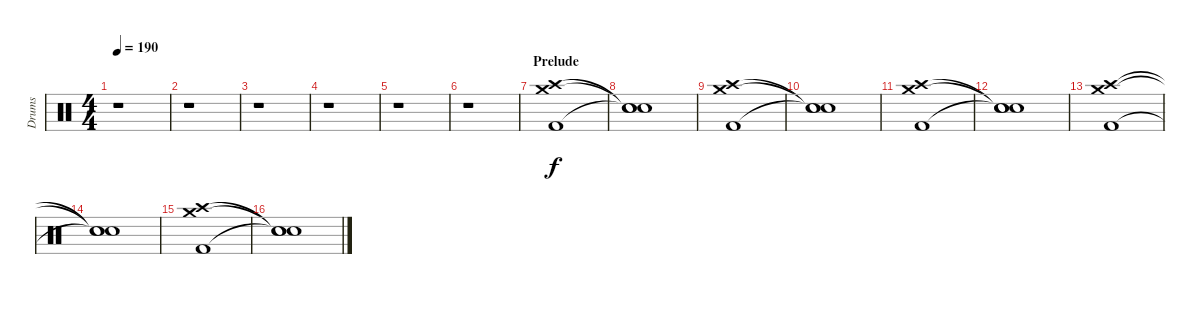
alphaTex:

\track ("Drums" "Drums") {instrument percussion}
\staff {score}
\articulation defaults
\ts (4 4)
\tempo 190
\clef neutral
\ks c
r.1{dy f} |
r.1 |
r.1 |
r.1 |
r.1 |
r.1 |
\section ("" "Prelude")
("Crash medium (hit)" "Crash high (hit)" "Kick (hit) 2").1 |
("Snare (hit)"{t} "Snare (hit)"{t} "Snare (hit)"{t}).1 |
("Crash medium (hit)" "Crash high (hit)" "Kick (hit) 2").1 |
("Snare (hit)"{t} "Snare (hit)"{t} "Snare (hit)"{t}).1 |
("Crash medium (hit)" "Crash high (hit)" "Kick (hit) 2").1 |
("Snare (hit)"{t} "Snare (hit)"{t} "Snare (hit)"{t}).1 |
("Crash medium (hit)" "Crash high (hit)" "Kick (hit) 2").1 |
("Snare (hit)"{t} "Snare (hit)"{t} "Snare (hit)"{t}).1 |
("Crash medium (hit)" "Crash high (hit)" "Kick (hit) 2").1 |
("Snare (hit)"{t} "Snare (hit)"{t} "Snare (hit)"{t}).1
